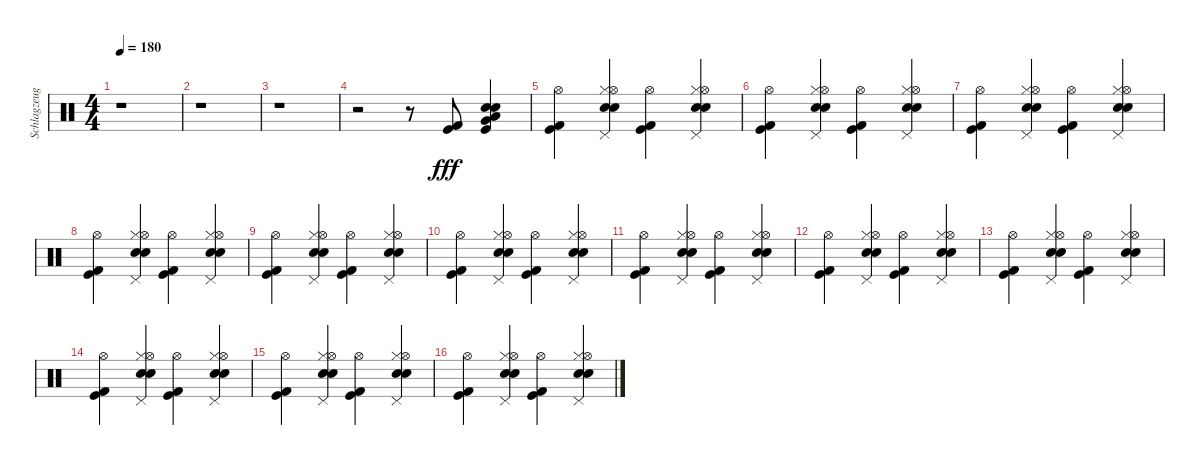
\track ("Schlagzeug" "Schlagzeug") {instrument percussion}
\staff {score}
\articulation defaults
\ts (4 4)
\tempo 180
\clef neutral
\ks c
r.1{dy fff} |
r.1 |
r.1 |
r.2 r.8 ("Kick (hit) 2" "Kick (hit)").8 ("Snare (hit) 2" "Very Low Tom (hit)" "Low Tom (hit)" "Kick (hit)" "Electric Snare (hit)").4 |
("Kick (hit)" "Kick (hit) 2" "Hi-Hat (open)").4 ("Electric Snare (hit)" "Hi-Hat (closed)" "Snare (hit) 2" "Pedal Hi-Hat (hit)" "Hi-Hat (open)").4 ("Kick (hit)" "Kick (hit) 2" "Hi-Hat (open)").4 ("Electric Snare (hit)" "Hi-Hat (closed)" "Snare (hit) 2" "Pedal Hi-Hat (hit)" "Hi-Hat (open)").4 |
("Kick (hit)" "Kick (hit) 2" "Hi-Hat (open)").4 ("Electric Snare (hit)" "Hi-Hat (closed)" "Snare (hit) 2" "Pedal Hi-Hat (hit)" "Hi-Hat (open)").4 ("Kick (hit)" "Kick (hit) 2" "Hi-Hat (open)").4 ("Electric Snare (hit)" "Hi-Hat (closed)" "Snare (hit) 2" "Pedal Hi-Hat (hit)" "Hi-Hat (open)").4 |
("Kick (hit)" "Kick (hit) 2" "Hi-Hat (open)").4 ("Electric Snare (hit)" "Hi-Hat (closed)" "Snare (hit) 2" "Pedal Hi-Hat (hit)" "Hi-Hat (open)").4 ("Kick (hit)" "Kick (hit) 2" "Hi-Hat (open)").4 ("Electric Snare (hit)" "Hi-Hat (closed)" "Snare (hit) 2" "Pedal Hi-Hat (hit)" "Hi-Hat (open)").4 |
("Kick (hit)" "Kick (hit) 2" "Hi-Hat (open)").4 ("Electric Snare (hit)" "Hi-Hat (closed)" "Snare (hit) 2" "Pedal Hi-Hat (hit)" "Hi-Hat (open)").4 ("Kick (hit)" "Kick (hit) 2" "Hi-Hat (open)").4 ("Electric Snare (hit)" "Hi-Hat (closed)" "Snare (hit) 2" "Pedal Hi-Hat (hit)" "Hi-Hat (open)").4 |
("Kick (hit)" "Kick (hit) 2" "Hi-Hat (open)").4 ("Electric Snare (hit)" "Hi-Hat (closed)" "Snare (hit) 2" "Pedal Hi-Hat (hit)" "Hi-Hat (open)").4 ("Kick (hit)" "Kick (hit) 2" "Hi-Hat (open)").4 ("Electric Snare (hit)" "Hi-Hat (closed)" "Snare (hit) 2" "Pedal Hi-Hat (hit)" "Hi-Hat (open)").4 |
("Kick (hit)" "Kick (hit) 2" "Hi-Hat (open)").4 ("Electric Snare (hit)" "Hi-Hat (closed)" "Snare (hit) 2" "Pedal Hi-Hat (hit)" "Hi-Hat (open)").4 ("Kick (hit)" "Kick (hit) 2" "Hi-Hat (open)").4 ("Electric Snare (hit)" "Hi-Hat (closed)" "Snare (hit) 2" "Pedal Hi-Hat (hit)" "Hi-Hat (open)").4 |
("Kick (hit)" "Kick (hit) 2" "Hi-Hat (open)").4 ("Electric Snare (hit)" "Hi-Hat (closed)" "Snare (hit) 2" "Pedal Hi-Hat (hit)" "Hi-Hat (open)").4 ("Kick (hit)" "Kick (hit) 2" "Hi-Hat (open)").4 ("Electric Snare (hit)" "Hi-Hat (closed)" "Snare (hit) 2" "Pedal Hi-Hat (hit)" "Hi-Hat (open)").4 |
("Kick (hit)" "Kick (hit) 2" "Hi-Hat (open)").4 ("Electric Snare (hit)" "Hi-Hat (closed)" "Snare (hit) 2" "Pedal Hi-Hat (hit)" "Hi-Hat (open)").4 ("Kick (hit)" "Kick (hit) 2" "Hi-Hat (open)").4 ("Electric Snare (hit)" "Hi-Hat (closed)" "Snare (hit) 2" "Pedal Hi-Hat (hit)" "Hi-Hat (open)").4 |
("Kick (hit)" "Kick (hit) 2" "Hi-Hat (open)").4 ("Electric Snare (hit)" "Hi-Hat (closed)" "Snare (hit) 2" "Pedal Hi-Hat (hit)" "Hi-Hat (open)").4 ("Kick (hit)" "Kick (hit) 2" "Hi-Hat (open)").4 ("Electric Snare (hit)" "Hi-Hat (closed)" "Snare (hit) 2" "Pedal Hi-Hat (hit)" "Hi-Hat (open)").4 |
("Kick (hit)" "Kick (hit) 2" "Hi-Hat (open)").4 ("Electric Snare (hit)" "Hi-Hat (closed)" "Snare (hit) 2" "Pedal Hi-Hat (hit)" "Hi-Hat (open)").4 ("Kick (hit)" "Kick (hit) 2" "Hi-Hat (open)").4 ("Electric Snare (hit)" "Hi-Hat (closed)" "Snare (hit) 2" "Pedal Hi-Hat (hit)" "Hi-Hat (open)").4 |
("Kick (hit)" "Kick (hit) 2" "Hi-Hat (open)").4 ("Electric Snare (hit)" "Hi-Hat (closed)" "Snare (hit) 2" "Pedal Hi-Hat (hit)" "Hi-Hat (open)").4 ("Kick (hit)" "Kick (hit) 2" "Hi-Hat (open)").4 ("Electric Snare (hit)" "Hi-Hat (closed)" "Snare (hit) 2" "Pedal Hi-Hat (hit)" "Hi-Hat (open)").4 |
("Kick (hit)" "Kick (hit) 2" "Hi-Hat (open)").4 ("Electric Snare (hit)" "Hi-Hat (closed)" "Snare (hit) 2" "Pedal Hi-Hat (hit)" "Hi-Hat (open)").4 ("Kick (hit)" "Kick (hit) 2" "Hi-Hat (open)").4 ("Electric Snare (hit)" "Hi-Hat (closed)" "Snare (hit) 2" "Pedal Hi-Hat (hit)" "Hi-Hat (open)").4
